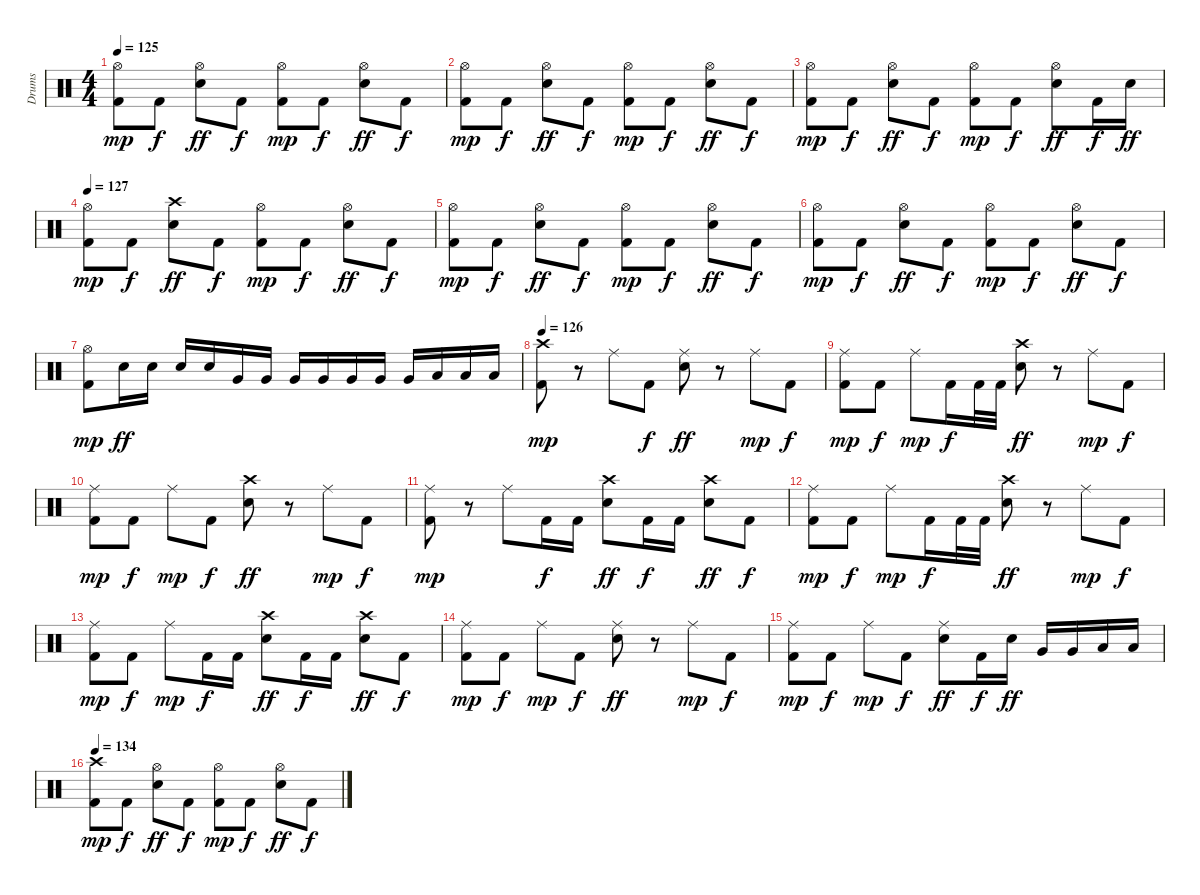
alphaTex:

\track ("Drums" "Drums") {instrument percussion}
\staff {score}
\articulation defaults
\ts (4 4)
\tempo 125
\clef neutral
\ks c
("Hi-Hat (open)" "Kick (hit) 2").8{dy mp} "Kick (hit) 2".8{dy f} ("Hi-Hat (open)" "Electric Snare (hit)").8{dy ff} "Kick (hit) 2".8{dy f} ("Hi-Hat (open)" "Kick (hit) 2").8{dy mp} "Kick (hit) 2".8{dy f} ("Hi-Hat (open)" "Electric Snare (hit)").8{dy ff} "Kick (hit) 2".8{dy f} |
("Hi-Hat (open)" "Kick (hit) 2").8{dy mp} "Kick (hit) 2".8{dy f} ("Hi-Hat (open)" "Electric Snare (hit)").8{dy ff} "Kick (hit) 2".8{dy f} ("Hi-Hat (open)" "Kick (hit) 2").8{dy mp} "Kick (hit) 2".8{dy f} ("Hi-Hat (open)" "Electric Snare (hit)").8{dy ff} "Kick (hit) 2".8{dy f} |
("Hi-Hat (open)" "Kick (hit) 2").8{dy mp} "Kick (hit) 2".8{dy f} ("Hi-Hat (open)" "Electric Snare (hit)").8{dy ff} "Kick (hit) 2".8{dy f} ("Hi-Hat (open)" "Kick (hit) 2").8{dy mp} "Kick (hit) 2".8{dy f} ("Hi-Hat (open)" "Electric Snare (hit)").8{dy ff} "Kick (hit) 2".16{dy f} "Electric Snare (hit)".16{dy ff} |
\tempo 127
("Hi-Hat (open)" "Kick (hit) 2").8{dy mp} "Kick (hit) 2".8{dy f} ("Crash high (hit)" "Electric Snare (hit)").8{dy ff} "Kick (hit) 2".8{dy f} ("Hi-Hat (open)" "Kick (hit) 2").8{dy mp} "Kick (hit) 2".8{dy f} ("Hi-Hat (open)" "Electric Snare (hit)").8{dy ff} "Kick (hit) 2".8{dy f} |
("Hi-Hat (open)" "Kick (hit) 2").8{dy mp} "Kick (hit) 2".8{dy f} ("Hi-Hat (open)" "Electric Snare (hit)").8{dy ff} "Kick (hit) 2".8{dy f} ("Hi-Hat (open)" "Kick (hit) 2").8{dy mp} "Kick (hit) 2".8{dy f} ("Hi-Hat (open)" "Electric Snare (hit)").8{dy ff} "Kick (hit) 2".8{dy f} |
("Hi-Hat (open)" "Kick (hit) 2").8{dy mp} "Kick (hit) 2".8{dy f} ("Hi-Hat (open)" "Electric Snare (hit)").8{dy ff} "Kick (hit) 2".8{dy f} ("Hi-Hat (open)" "Kick (hit) 2").8{dy mp} "Kick (hit) 2".8{dy f} ("Hi-Hat (open)" "Electric Snare (hit)").8{dy ff} "Kick (hit) 2".8{dy f} |
("Hi-Hat (open)" "Kick (hit) 2").8{dy mp} "Electric Snare (hit)".16{dy ff} "Electric Snare (hit)".16 "Electric Snare (hit)".16 "Electric Snare (hit)".16 "Very Low Tom (hit)".16 "Very Low Tom (hit)".16 "Very Low Tom (hit)".16 "Very Low Tom (hit)".16 "Very Low Tom (hit)".16 "Very Low Tom (hit)".16 "Very Low Tom (hit)".16 "Low Floor Tom (hit)".16 "Low Floor Tom (hit)".16 "Low Floor Tom (hit)".16 |
\tempo 126
("Crash high (hit)" "Kick (hit) 2").8{dy mp} r.8 "Ride (middle)".8 "Kick (hit) 2".8{dy f} ("Ride (middle)" "Electric Snare (hit)").8{dy ff} r.8 "Ride (middle)".8{dy mp} "Kick (hit) 2".8{dy f} |
("Ride (middle)" "Kick (hit) 2").8{dy mp} "Kick (hit) 2".8{dy f} "Ride (middle)".8{dy mp} "Kick (hit) 2".16{dy f} "Kick (hit) 2".32 "Kick (hit) 2".32 ("Crash high (hit)" "Electric Snare (hit)").8{dy ff} r.8 "Ride (middle)".8{dy mp} "Kick (hit) 2".8{dy f} |
("Ride (middle)" "Kick (hit) 2").8{dy mp} "Kick (hit) 2".8{dy f} "Ride (middle)".8{dy mp} "Kick (hit) 2".8{dy f} ("Crash high (hit)" "Electric Snare (hit)").8{dy ff} r.8 "Ride (middle)".8{dy mp} "Kick (hit) 2".8{dy f} |
("Ride (middle)" "Kick (hit) 2").8{dy mp} r.8 "Ride (middle)".8 "Kick (hit) 2".16{dy f} "Kick (hit) 2".16 ("Crash high (hit)" "Electric Snare (hit)").8{dy ff} "Kick (hit) 2".16{dy f} "Kick (hit) 2".16 ("Crash high (hit)" "Electric Snare (hit)").8{dy ff} "Kick (hit) 2".8{dy f} |
("Ride (middle)" "Kick (hit) 2").8{dy mp} "Kick (hit) 2".8{dy f} "Ride (middle)".8{dy mp} "Kick (hit) 2".16{dy f} "Kick (hit) 2".32 "Kick (hit) 2".32 ("Crash high (hit)" "Electric Snare (hit)").8{dy ff} r.8 "Ride (middle)".8{dy mp} "Kick (hit) 2".8{dy f} |
("Ride (middle)" "Kick (hit) 2").8{dy mp} "Kick (hit) 2".8{dy f} "Ride (middle)".8{dy mp} "Kick (hit) 2".16{dy f} "Kick (hit) 2".16 ("Crash high (hit)" "Electric Snare (hit)").8{dy ff} "Kick (hit) 2".16{dy f} "Kick (hit) 2".16 ("Crash high (hit)" "Electric Snare (hit)").8{dy ff} "Kick (hit) 2".8{dy f} |
("Ride (middle)" "Kick (hit) 2").8{dy mp} "Kick (hit) 2".8{dy f} "Ride (middle)".8{dy mp} "Kick (hit) 2".8{dy f} ("Ride (middle)" "Electric Snare (hit)").8{dy ff} r.8 "Ride (middle)".8{dy mp} "Kick (hit) 2".8{dy f} |
("Ride (middle)" "Kick (hit) 2").8{dy mp} "Kick (hit) 2".8{dy f} "Ride (middle)".8{dy mp} "Kick (hit) 2".8{dy f} ("Ride (middle)" "Electric Snare (hit)").8{dy ff} "Kick (hit) 2".16{dy f} "Electric Snare (hit)".16{dy ff} "Very Low Tom (hit)".16 "Very Low Tom (hit)".16 "Low Floor Tom (hit)".16 "Low Floor Tom (hit)".16 |
\tempo 134
("Crash high (hit)" "Kick (hit) 2").8{dy mp} "Kick (hit) 2".8{dy f} ("Hi-Hat (open)" "Electric Snare (hit)").8{dy ff} "Kick (hit) 2".8{dy f} ("Hi-Hat (open)" "Kick (hit) 2").8{dy mp} "Kick (hit) 2".8{dy f} ("Hi-Hat (open)" "Electric Snare (hit)").8{dy ff} "Kick (hit) 2".8{dy f}
